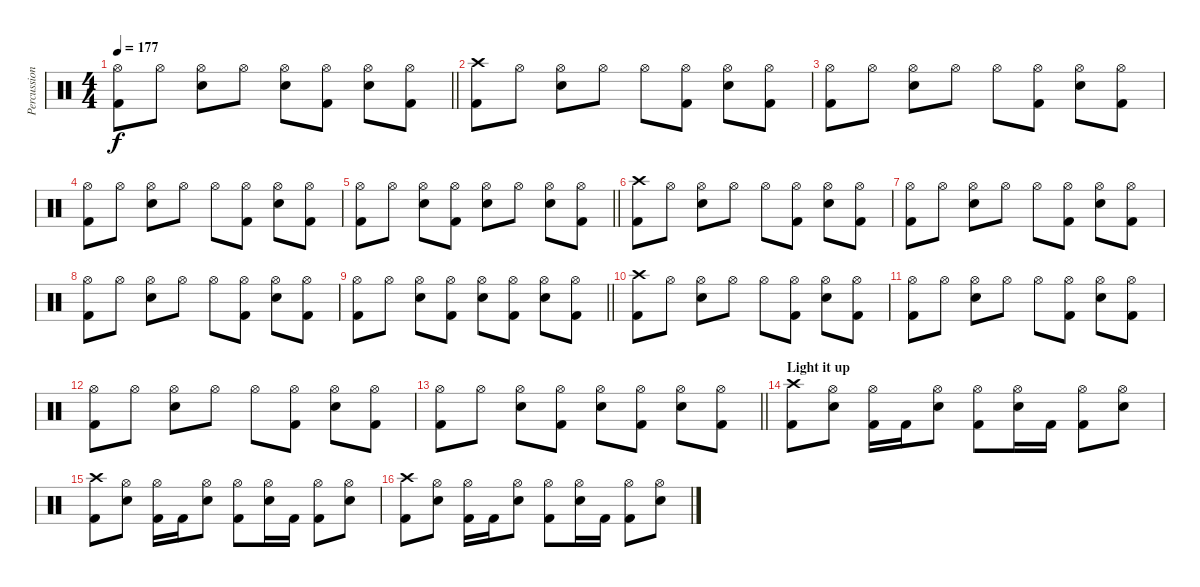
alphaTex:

\track ("Percussion" "Percussion") {instrument percussion}
\staff {score}
\articulation defaults
\ts (4 4)
\tempo 177
\clef neutral
\barLineRight lightlight
\ks c
("Hi-Hat (open)" "Kick (hit) 2").8{dy f} "Hi-Hat (open)".8 ("Hi-Hat (open)" "Snare (hit) 2").8 "Hi-Hat (open)".8 ("Hi-Hat (open)" "Snare (hit) 2").8 ("Hi-Hat (open)" "Kick (hit) 2").8 ("Hi-Hat (open)" "Snare (hit) 2").8 ("Hi-Hat (open)" "Kick (hit) 2").8 |
("Crash high (hit)" "Kick (hit) 2").8 "Hi-Hat (open)".8 ("Hi-Hat (open)" "Snare (hit) 2").8 "Hi-Hat (open)".8 "Hi-Hat (open)".8 ("Hi-Hat (open)" "Kick (hit) 2").8 ("Hi-Hat (open)" "Snare (hit) 2").8 ("Hi-Hat (open)" "Kick (hit) 2").8 |
("Hi-Hat (open)" "Kick (hit) 2").8 "Hi-Hat (open)".8 ("Hi-Hat (open)" "Snare (hit) 2").8 "Hi-Hat (open)".8 "Hi-Hat (open)".8 ("Hi-Hat (open)" "Kick (hit) 2").8 ("Hi-Hat (open)" "Snare (hit) 2").8 ("Hi-Hat (open)" "Kick (hit) 2").8 |
("Hi-Hat (open)" "Kick (hit) 2").8 "Hi-Hat (open)".8 ("Hi-Hat (open)" "Snare (hit) 2").8 "Hi-Hat (open)".8 "Hi-Hat (open)".8 ("Hi-Hat (open)" "Kick (hit) 2").8 ("Hi-Hat (open)" "Snare (hit) 2").8 ("Hi-Hat (open)" "Kick (hit) 2").8 |
\barLineRight lightlight
("Hi-Hat (open)" "Kick (hit) 2").8 "Hi-Hat (open)".8 ("Hi-Hat (open)" "Snare (hit) 2").8 ("Hi-Hat (open)" "Kick (hit) 2").8 ("Hi-Hat (open)" "Snare (hit) 2").8 "Hi-Hat (open)".8 ("Hi-Hat (open)" "Snare (hit) 2").8 ("Hi-Hat (open)" "Kick (hit) 2").8 |
("Crash high (hit)" "Kick (hit) 2").8 "Hi-Hat (open)".8 ("Hi-Hat (open)" "Snare (hit) 2").8 "Hi-Hat (open)".8 "Hi-Hat (open)".8 ("Hi-Hat (open)" "Kick (hit) 2").8 ("Hi-Hat (open)" "Snare (hit) 2").8 ("Hi-Hat (open)" "Kick (hit) 2").8 |
("Hi-Hat (open)" "Kick (hit) 2").8 "Hi-Hat (open)".8 ("Hi-Hat (open)" "Snare (hit) 2").8 "Hi-Hat (open)".8 "Hi-Hat (open)".8 ("Hi-Hat (open)" "Kick (hit) 2").8 ("Hi-Hat (open)" "Snare (hit) 2").8 ("Hi-Hat (open)" "Kick (hit) 2").8 |
("Hi-Hat (open)" "Kick (hit) 2").8 "Hi-Hat (open)".8 ("Hi-Hat (open)" "Snare (hit) 2").8 "Hi-Hat (open)".8 "Hi-Hat (open)".8 ("Hi-Hat (open)" "Kick (hit) 2").8 ("Hi-Hat (open)" "Snare (hit) 2").8 ("Hi-Hat (open)" "Kick (hit) 2").8 |
\barLineRight lightlight
("Hi-Hat (open)" "Kick (hit) 2").8 "Hi-Hat (open)".8 ("Hi-Hat (open)" "Snare (hit) 2").8 ("Hi-Hat (open)" "Kick (hit) 2").8 ("Hi-Hat (open)" "Snare (hit) 2").8 ("Hi-Hat (open)" "Kick (hit) 2").8 ("Hi-Hat (open)" "Snare (hit) 2").8 ("Hi-Hat (open)" "Kick (hit) 2").8 |
("Crash high (hit)" "Kick (hit) 2").8 "Hi-Hat (open)".8 ("Hi-Hat (open)" "Snare (hit) 2").8 "Hi-Hat (open)".8 "Hi-Hat (open)".8 ("Hi-Hat (open)" "Kick (hit) 2").8 ("Hi-Hat (open)" "Snare (hit) 2").8 ("Hi-Hat (open)" "Kick (hit) 2").8 |
("Hi-Hat (open)" "Kick (hit) 2").8 "Hi-Hat (open)".8 ("Hi-Hat (open)" "Snare (hit) 2").8 "Hi-Hat (open)".8 "Hi-Hat (open)".8 ("Hi-Hat (open)" "Kick (hit) 2").8 ("Hi-Hat (open)" "Snare (hit) 2").8 ("Hi-Hat (open)" "Kick (hit) 2").8 |
("Hi-Hat (open)" "Kick (hit) 2").8 "Hi-Hat (open)".8 ("Hi-Hat (open)" "Snare (hit) 2").8 "Hi-Hat (open)".8 "Hi-Hat (open)".8 ("Hi-Hat (open)" "Kick (hit) 2").8 ("Hi-Hat (open)" "Snare (hit) 2").8 ("Hi-Hat (open)" "Kick (hit) 2").8 |
\barLineRight lightlight
("Hi-Hat (open)" "Kick (hit) 2").8 "Hi-Hat (open)".8 ("Hi-Hat (open)" "Snare (hit) 2").8 ("Hi-Hat (open)" "Kick (hit) 2").8 ("Hi-Hat (open)" "Snare (hit) 2").8 ("Hi-Hat (open)" "Kick (hit) 2").8 ("Hi-Hat (open)" "Snare (hit) 2").8 ("Hi-Hat (open)" "Kick (hit) 2").8 |
\section ("" "Light it up")
("Crash high (hit)" "Kick (hit) 2").8 ("Hi-Hat (open)" "Snare (hit) 2").8 ("Hi-Hat (open)" "Kick (hit) 2").16 "Kick (hit) 2".16 ("Hi-Hat (open)" "Snare (hit) 2").8 ("Hi-Hat (open)" "Kick (hit) 2").8 ("Hi-Hat (open)" "Snare (hit) 2").16 "Kick (hit) 2".16 ("Hi-Hat (open)" "Kick (hit) 2").8 ("Hi-Hat (open)" "Snare (hit) 2").8 |
("Crash high (hit)" "Kick (hit) 2").8 ("Hi-Hat (open)" "Snare (hit) 2").8 ("Hi-Hat (open)" "Kick (hit) 2").16 "Kick (hit) 2".16 ("Hi-Hat (open)" "Snare (hit) 2").8 ("Hi-Hat (open)" "Kick (hit) 2").8 ("Hi-Hat (open)" "Snare (hit) 2").16 "Kick (hit) 2".16 ("Hi-Hat (open)" "Kick (hit) 2").8 ("Hi-Hat (open)" "Snare (hit) 2").8 |
("Crash high (hit)" "Kick (hit) 2").8 ("Hi-Hat (open)" "Snare (hit) 2").8 ("Hi-Hat (open)" "Kick (hit) 2").16 "Kick (hit) 2".16 ("Hi-Hat (open)" "Snare (hit) 2").8 ("Hi-Hat (open)" "Kick (hit) 2").8 ("Hi-Hat (open)" "Snare (hit) 2").16 "Kick (hit) 2".16 ("Hi-Hat (open)" "Kick (hit) 2").8 ("Hi-Hat (open)" "Snare (hit) 2").8
